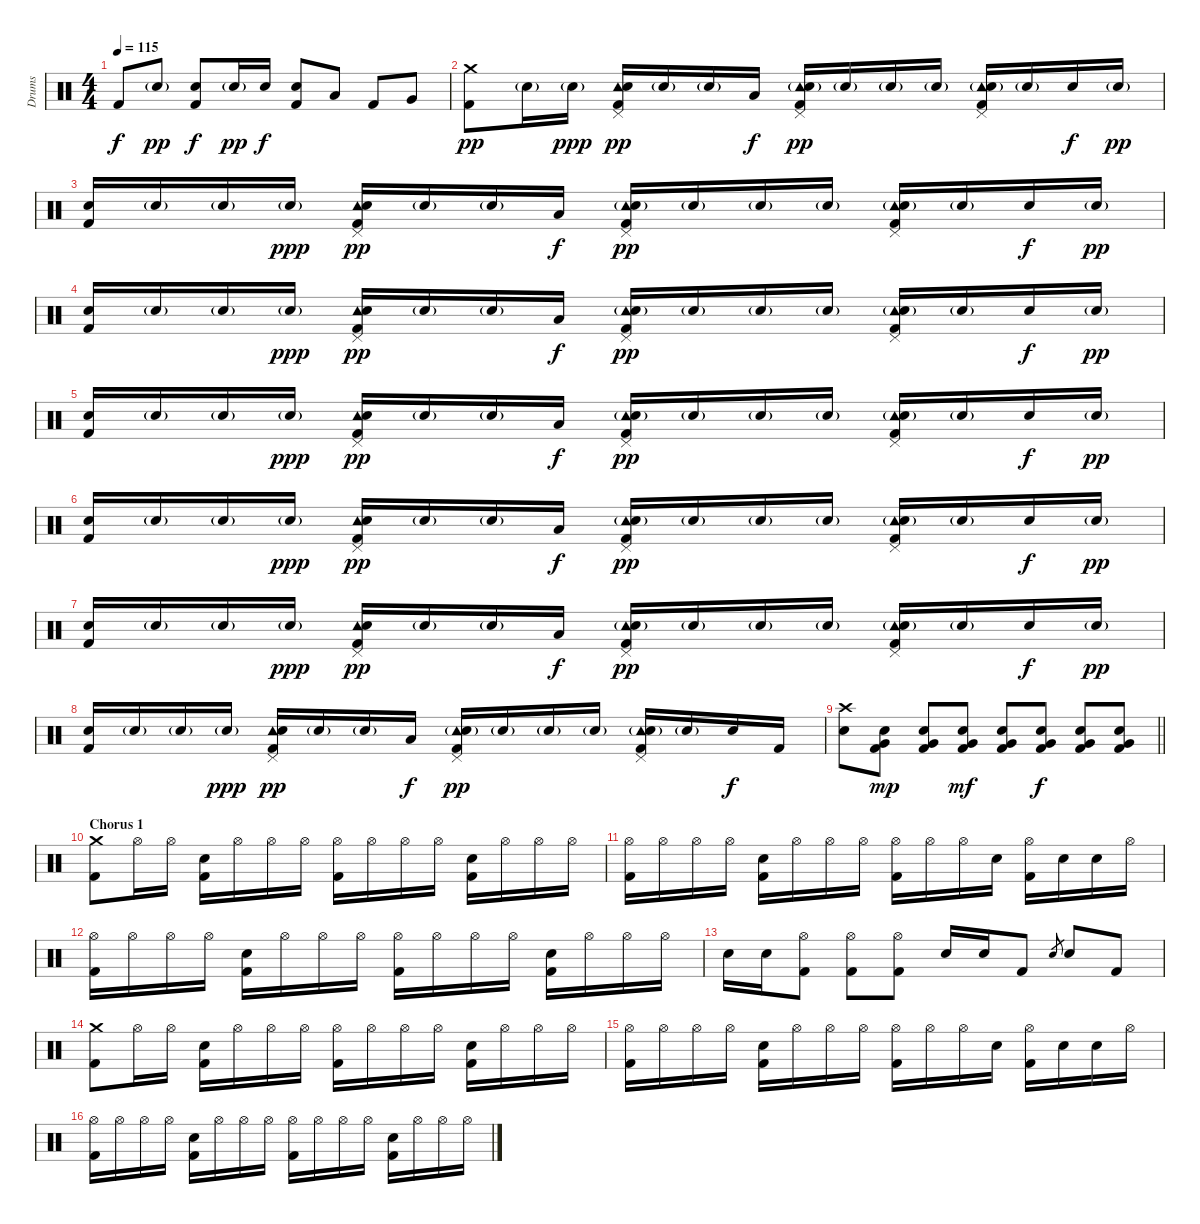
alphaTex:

\track ("Drums" "Drums") {instrument percussion}
\staff {score}
\articulation defaults
\ts (4 4)
\tempo 115
\clef neutral
\ks c "Kick (hit) 2".8{dy f} "Electric Snare (hit)"{g}.8{dy pp}
("Electric Snare (hit)" "Kick (hit) 2").8{dy f} "Electric Snare (hit)"{g}.16{dy pp} "Electric Snare (hit)".16{dy f} ("Electric Snare (hit)" "Kick (hit) 2").8 "Low Tom (hit)".8 "Kick (hit) 2".8 "Very Low Tom (hit)".8 |
("Crash medium (hit)" "Kick (hit) 2").8{dy pp} "Electric Snare (hit)"{g}.16 "Electric Snare (hit)"{g}.16{dy ppp} ("Pedal Hi-Hat (hit)" "Tambourine (hit)" "Electric Snare (hit)" "Kick (hit) 2").16{dy pp} "Electric Snare (hit)"{g}.16 "Electric Snare (hit)"{g}.16 "Low Tom (hit)".16{dy f} ("Pedal Hi-Hat (hit)" "Tambourine (hit)" "Electric Snare (hit)"{g} "Kick (hit) 2").16{dy pp} "Electric Snare (hit)"{g}.16 "Electric Snare (hit)"{g}.16 "Electric Snare (hit)"{g}.16 ("Pedal Hi-Hat (hit)" "Tambourine (hit)" "Electric Snare (hit)"{g} "Kick (hit) 2").16 "Electric Snare (hit)"{g}.16 "Electric Snare (hit)".16{dy f} "Electric Snare (hit)"{g}.16{dy pp} |
("Electric Snare (hit)" "Kick (hit) 2").16 "Electric Snare (hit)"{g}.16 "Electric Snare (hit)"{g}.16 "Electric Snare (hit)"{g}.16{dy ppp} ("Pedal Hi-Hat (hit)" "Tambourine (hit)" "Electric Snare (hit)" "Kick (hit) 2").16{dy pp} "Electric Snare (hit)"{g}.16 "Electric Snare (hit)"{g}.16 "Low Tom (hit)".16{dy f} ("Pedal Hi-Hat (hit)" "Tambourine (hit)" "Electric Snare (hit)"{g} "Kick (hit) 2").16{dy pp} "Electric Snare (hit)"{g}.16 "Electric Snare (hit)"{g}.16 "Electric Snare (hit)"{g}.16 ("Pedal Hi-Hat (hit)" "Tambourine (hit)" "Electric Snare (hit)"{g} "Kick (hit) 2").16 "Electric Snare (hit)"{g}.16 "Electric Snare (hit)".16{dy f} "Electric Snare (hit)"{g}.16{dy pp} |
("Electric Snare (hit)" "Kick (hit) 2").16 "Electric Snare (hit)"{g}.16 "Electric Snare (hit)"{g}.16 "Electric Snare (hit)"{g}.16{dy ppp} ("Pedal Hi-Hat (hit)" "Tambourine (hit)" "Electric Snare (hit)" "Kick (hit) 2").16{dy pp} "Electric Snare (hit)"{g}.16 "Electric Snare (hit)"{g}.16 "Low Tom (hit)".16{dy f} ("Pedal Hi-Hat (hit)" "Tambourine (hit)" "Electric Snare (hit)"{g} "Kick (hit) 2").16{dy pp} "Electric Snare (hit)"{g}.16 "Electric Snare (hit)"{g}.16 "Electric Snare (hit)"{g}.16 ("Pedal Hi-Hat (hit)" "Tambourine (hit)" "Electric Snare (hit)"{g} "Kick (hit) 2").16 "Electric Snare (hit)"{g}.16 "Electric Snare (hit)".16{dy f} "Electric Snare (hit)"{g}.16{dy pp} |
("Electric Snare (hit)" "Kick (hit) 2").16 "Electric Snare (hit)"{g}.16 "Electric Snare (hit)"{g}.16 "Electric Snare (hit)"{g}.16{dy ppp} ("Pedal Hi-Hat (hit)" "Tambourine (hit)" "Electric Snare (hit)" "Kick (hit) 2").16{dy pp} "Electric Snare (hit)"{g}.16 "Electric Snare (hit)"{g}.16 "Low Tom (hit)".16{dy f} ("Pedal Hi-Hat (hit)" "Tambourine (hit)" "Electric Snare (hit)"{g} "Kick (hit) 2").16{dy pp} "Electric Snare (hit)"{g}.16 "Electric Snare (hit)"{g}.16 "Electric Snare (hit)"{g}.16 ("Pedal Hi-Hat (hit)" "Tambourine (hit)" "Electric Snare (hit)"{g} "Kick (hit) 2").16 "Electric Snare (hit)"{g}.16 "Electric Snare (hit)".16{dy f} "Electric Snare (hit)"{g}.16{dy pp} |
("Electric Snare (hit)" "Kick (hit) 2").16 "Electric Snare (hit)"{g}.16 "Electric Snare (hit)"{g}.16 "Electric Snare (hit)"{g}.16{dy ppp} ("Pedal Hi-Hat (hit)" "Tambourine (hit)" "Electric Snare (hit)" "Kick (hit) 2").16{dy pp} "Electric Snare (hit)"{g}.16 "Electric Snare (hit)"{g}.16 "Low Tom (hit)".16{dy f} ("Pedal Hi-Hat (hit)" "Tambourine (hit)" "Electric Snare (hit)"{g} "Kick (hit) 2").16{dy pp} "Electric Snare (hit)"{g}.16 "Electric Snare (hit)"{g}.16 "Electric Snare (hit)"{g}.16 ("Pedal Hi-Hat (hit)" "Tambourine (hit)" "Electric Snare (hit)"{g} "Kick (hit) 2").16 "Electric Snare (hit)"{g}.16 "Electric Snare (hit)".16{dy f} "Electric Snare (hit)"{g}.16{dy pp} |
("Electric Snare (hit)" "Kick (hit) 2").16 "Electric Snare (hit)"{g}.16 "Electric Snare (hit)"{g}.16 "Electric Snare (hit)"{g}.16{dy ppp} ("Pedal Hi-Hat (hit)" "Tambourine (hit)" "Electric Snare (hit)" "Kick (hit) 2").16{dy pp} "Electric Snare (hit)"{g}.16 "Electric Snare (hit)"{g}.16 "Low Tom (hit)".16{dy f} ("Pedal Hi-Hat (hit)" "Tambourine (hit)" "Electric Snare (hit)"{g} "Kick (hit) 2").16{dy pp} "Electric Snare (hit)"{g}.16 "Electric Snare (hit)"{g}.16 "Electric Snare (hit)"{g}.16 ("Pedal Hi-Hat (hit)" "Tambourine (hit)" "Electric Snare (hit)"{g} "Kick (hit) 2").16 "Electric Snare (hit)"{g}.16 "Electric Snare (hit)".16{dy f} "Electric Snare (hit)"{g}.16{dy pp} |
("Electric Snare (hit)" "Kick (hit) 2").16 "Electric Snare (hit)"{g}.16 "Electric Snare (hit)"{g}.16 "Electric Snare (hit)"{g}.16{dy ppp} ("Pedal Hi-Hat (hit)" "Tambourine (hit)" "Electric Snare (hit)" "Kick (hit) 2").16{dy pp} "Electric Snare (hit)"{g}.16 "Electric Snare (hit)"{g}.16 "Low Tom (hit)".16{dy f} ("Pedal Hi-Hat (hit)" "Tambourine (hit)" "Electric Snare (hit)"{g} "Kick (hit) 2").16{dy pp} "Electric Snare (hit)"{g}.16 "Electric Snare (hit)"{g}.16 "Electric Snare (hit)"{g}.16 ("Pedal Hi-Hat (hit)" "Tambourine (hit)" "Electric Snare (hit)"{g} "Kick (hit) 2").16 "Electric Snare (hit)"{g}.16 "Electric Snare (hit)".16{dy f} "Kick (hit) 2".16 |
\barLineRight lightlight
("Crash high (hit)" "Electric Snare (hit)").8 ("Very Low Tom (hit)" "Electric Snare (hit)" "Kick (hit) 2").8{dy mp} ("Very Low Tom (hit)" "Electric Snare (hit)" "Kick (hit) 2").8 ("Very Low Tom (hit)" "Electric Snare (hit)" "Kick (hit) 2").8{dy mf} ("Very Low Tom (hit)" "Electric Snare (hit)" "Kick (hit) 2").8 ("Very Low Tom (hit)" "Electric Snare (hit)" "Kick (hit) 2").8{dy f} ("Very Low Tom (hit)" "Electric Snare (hit)" "Kick (hit) 2").8 ("Very Low Tom (hit)" "Electric Snare (hit)" "Kick (hit) 2").8 |
\section ("" "Chorus 1")
("Crash medium (hit)" "Kick (hit) 2").8 "Hi-Hat (open)".16 "Hi-Hat (open)".16 ("Electric Snare (hit)" "Kick (hit) 2").16 "Hi-Hat (open)".16 "Hi-Hat (open)".16 "Hi-Hat (open)".16 ("Hi-Hat (open)" "Kick (hit) 2").16 "Hi-Hat (open)".16 "Hi-Hat (open)".16 "Hi-Hat (open)".16 ("Electric Snare (hit)" "Kick (hit) 2").16 "Hi-Hat (open)".16 "Hi-Hat (open)".16 "Hi-Hat (open)".16 |
("Hi-Hat (open)" "Kick (hit) 2").16 "Hi-Hat (open)".16 "Hi-Hat (open)".16 "Hi-Hat (open)".16 ("Electric Snare (hit)" "Kick (hit) 2").16 "Hi-Hat (open)".16 "Hi-Hat (open)".16 "Hi-Hat (open)".16 ("Hi-Hat (open)" "Kick (hit) 2").16 "Hi-Hat (open)".16 "Hi-Hat (open)".16 "Electric Snare (hit)".16 ("Hi-Hat (open)" "Kick (hit) 2").16 "Electric Snare (hit)".16 "Electric Snare (hit)".16 "Hi-Hat (open)".16 |
("Hi-Hat (open)" "Kick (hit) 2").16 "Hi-Hat (open)".16 "Hi-Hat (open)".16 "Hi-Hat (open)".16 ("Electric Snare (hit)" "Kick (hit) 2").16 "Hi-Hat (open)".16 "Hi-Hat (open)".16 "Hi-Hat (open)".16 ("Hi-Hat (open)" "Kick (hit) 2").16 "Hi-Hat (open)".16 "Hi-Hat (open)".16 "Hi-Hat (open)".16 ("Electric Snare (hit)" "Kick (hit) 2").16 "Hi-Hat (open)".16 "Hi-Hat (open)".16 "Hi-Hat (open)".16 |
"Electric Snare (hit)".16 "Electric Snare (hit)".16 ("Hi-Hat (open)" "Kick (hit) 2").8 ("Hi-Hat (open)" "Kick (hit) 2").8 ("Hi-Hat (open)" "Kick (hit) 2").8 "Electric Snare (hit)".16 "Electric Snare (hit)".16 "Kick (hit) 2".8 "Electric Snare (hit)".8{gr} "Electric Snare (hit)".8 "Kick (hit) 2".8 |
("Crash medium (hit)" "Kick (hit) 2").8 "Hi-Hat (open)".16 "Hi-Hat (open)".16 ("Electric Snare (hit)" "Kick (hit) 2").16 "Hi-Hat (open)".16 "Hi-Hat (open)".16 "Hi-Hat (open)".16 ("Hi-Hat (open)" "Kick (hit) 2").16 "Hi-Hat (open)".16 "Hi-Hat (open)".16 "Hi-Hat (open)".16 ("Electric Snare (hit)" "Kick (hit) 2").16 "Hi-Hat (open)".16 "Hi-Hat (open)".16 "Hi-Hat (open)".16 |
("Hi-Hat (open)" "Kick (hit) 2").16 "Hi-Hat (open)".16 "Hi-Hat (open)".16 "Hi-Hat (open)".16 ("Electric Snare (hit)" "Kick (hit) 2").16 "Hi-Hat (open)".16 "Hi-Hat (open)".16 "Hi-Hat (open)".16 ("Hi-Hat (open)" "Kick (hit) 2").16 "Hi-Hat (open)".16 "Hi-Hat (open)".16 "Electric Snare (hit)".16 ("Hi-Hat (open)" "Kick (hit) 2").16 "Electric Snare (hit)".16 "Electric Snare (hit)".16 "Hi-Hat (open)".16 |
("Hi-Hat (open)" "Kick (hit) 2").16 "Hi-Hat (open)".16 "Hi-Hat (open)".16 "Hi-Hat (open)".16 ("Electric Snare (hit)" "Kick (hit) 2").16 "Hi-Hat (open)".16 "Hi-Hat (open)".16 "Hi-Hat (open)".16 ("Hi-Hat (open)" "Kick (hit) 2").16 "Hi-Hat (open)".16 "Hi-Hat (open)".16 "Hi-Hat (open)".16 ("Electric Snare (hit)" "Kick (hit) 2").16 "Hi-Hat (open)".16 "Hi-Hat (open)".16 "Hi-Hat (open)".16
